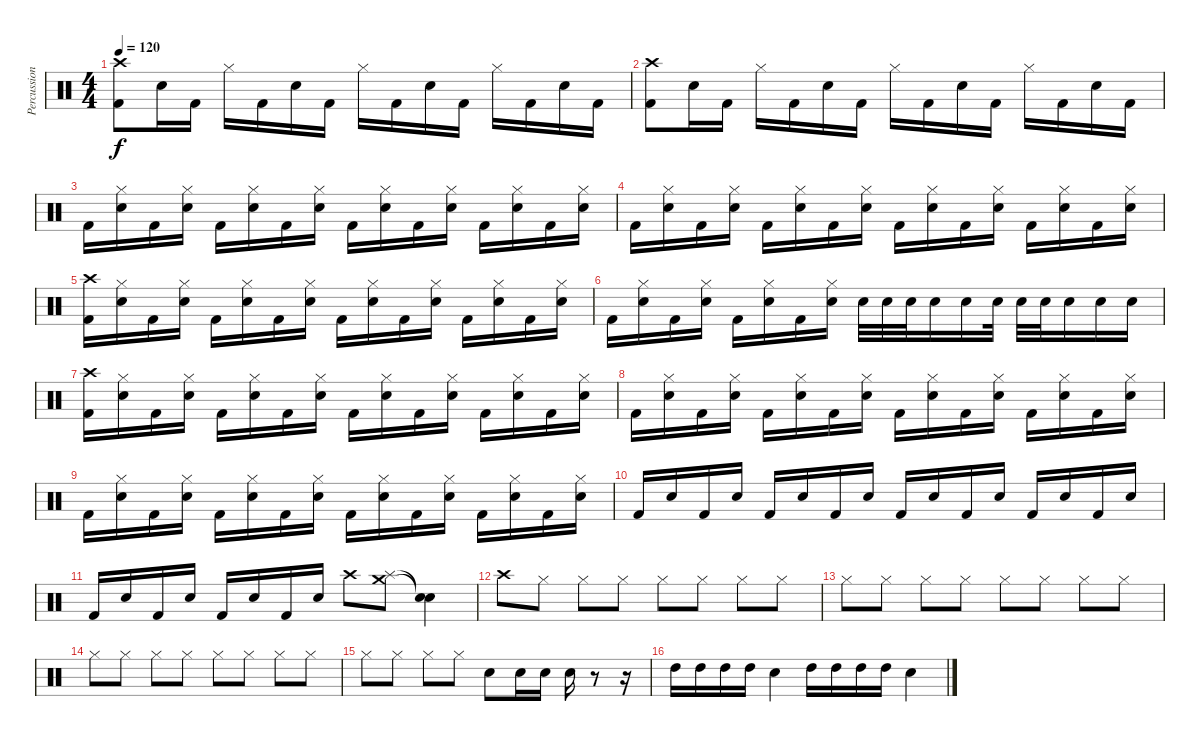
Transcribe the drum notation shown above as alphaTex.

\track ("Percussion" "Percussion") {instrument percussion}
\staff {score}
\articulation defaults
\ts (4 4)
\tempo 120
\clef neutral
\ks c
("Crash high (hit)" "Kick (hit) 2").8{dy f} "Snare (hit) 2".16 "Kick (hit) 2".16 "Hi-Hat (closed)".16 "Kick (hit) 2".16 "Snare (hit) 2".16 "Kick (hit) 2".16 "Hi-Hat (closed)".16 "Kick (hit) 2".16 "Snare (hit) 2".16 "Kick (hit) 2".16 "Hi-Hat (closed)".16 "Kick (hit) 2".16 "Snare (hit) 2".16 "Kick (hit) 2".16 |
("Crash high (hit)" "Kick (hit) 2").8 "Snare (hit) 2".16 "Kick (hit) 2".16 "Hi-Hat (closed)".16 "Kick (hit) 2".16 "Snare (hit) 2".16 "Kick (hit) 2".16 "Hi-Hat (closed)".16 "Kick (hit) 2".16 "Snare (hit) 2".16 "Kick (hit) 2".16 "Hi-Hat (closed)".16 "Kick (hit) 2".16 "Snare (hit) 2".16 "Kick (hit) 2".16 |
"Kick (hit) 2".16 ("Hi-Hat (closed)" "Snare (hit) 2").16 "Kick (hit) 2".16 ("Hi-Hat (closed)" "Snare (hit) 2").16 "Kick (hit) 2".16 ("Hi-Hat (closed)" "Snare (hit) 2").16 "Kick (hit) 2".16 ("Hi-Hat (closed)" "Snare (hit) 2").16 "Kick (hit) 2".16 ("Hi-Hat (closed)" "Snare (hit) 2").16 "Kick (hit) 2".16 ("Hi-Hat (closed)" "Snare (hit) 2").16 "Kick (hit) 2".16 ("Hi-Hat (closed)" "Snare (hit) 2").16 "Kick (hit) 2".16 ("Hi-Hat (closed)" "Snare (hit) 2").16 |
"Kick (hit) 2".16 ("Hi-Hat (closed)" "Snare (hit) 2").16 "Kick (hit) 2".16 ("Hi-Hat (closed)" "Snare (hit) 2").16 "Kick (hit) 2".16 ("Hi-Hat (closed)" "Snare (hit) 2").16 "Kick (hit) 2".16 ("Hi-Hat (closed)" "Snare (hit) 2").16 "Kick (hit) 2".16 ("Hi-Hat (closed)" "Snare (hit) 2").16 "Kick (hit) 2".16 ("Hi-Hat (closed)" "Snare (hit) 2").16 "Kick (hit) 2".16 ("Hi-Hat (closed)" "Snare (hit) 2").16 "Kick (hit) 2".16 ("Hi-Hat (closed)" "Snare (hit) 2").16 |
("Crash high (hit)" "Kick (hit) 2").16 ("Hi-Hat (closed)" "Snare (hit) 2").16 "Kick (hit) 2".16 ("Hi-Hat (closed)" "Snare (hit) 2").16 "Kick (hit) 2".16 ("Hi-Hat (closed)" "Snare (hit) 2").16 "Kick (hit) 2".16 ("Hi-Hat (closed)" "Snare (hit) 2").16 "Kick (hit) 2".16 ("Hi-Hat (closed)" "Snare (hit) 2").16 "Kick (hit) 2".16 ("Hi-Hat (closed)" "Snare (hit) 2").16 "Kick (hit) 2".16 ("Hi-Hat (closed)" "Snare (hit) 2").16 "Kick (hit) 2".16 ("Hi-Hat (closed)" "Snare (hit) 2").16 |
"Kick (hit) 2".16 ("Hi-Hat (closed)" "Snare (hit) 2").16 "Kick (hit) 2".16 ("Hi-Hat (closed)" "Snare (hit) 2").16 "Kick (hit) 2".16 ("Hi-Hat (closed)" "Snare (hit) 2").16 "Kick (hit) 2".16 ("Hi-Hat (closed)" "Snare (hit) 2").16 "Snare (hit) 2".32 "Snare (hit) 2".32 "Snare (hit) 2".32 "Snare (hit) 2".16 "Snare (hit) 2".16 "Snare (hit) 2".32 "Snare (hit) 2".32 "Snare (hit) 2".32 "Snare (hit) 2".16 "Snare (hit) 2".16 "Snare (hit) 2".16 |
("Crash high (hit)" "Kick (hit) 2").16 ("Hi-Hat (closed)" "Snare (hit) 2").16 "Kick (hit) 2".16 ("Hi-Hat (closed)" "Snare (hit) 2").16 "Kick (hit) 2".16 ("Hi-Hat (closed)" "Snare (hit) 2").16 "Kick (hit) 2".16 ("Hi-Hat (closed)" "Snare (hit) 2").16 "Kick (hit) 2".16 ("Hi-Hat (closed)" "Snare (hit) 2").16 "Kick (hit) 2".16 ("Hi-Hat (closed)" "Snare (hit) 2").16 "Kick (hit) 2".16 ("Hi-Hat (closed)" "Snare (hit) 2").16 "Kick (hit) 2".16 ("Hi-Hat (closed)" "Snare (hit) 2").16 |
"Kick (hit) 2".16 ("Hi-Hat (closed)" "Snare (hit) 2").16 "Kick (hit) 2".16 ("Hi-Hat (closed)" "Snare (hit) 2").16 "Kick (hit) 2".16 ("Hi-Hat (closed)" "Snare (hit) 2").16 "Kick (hit) 2".16 ("Hi-Hat (closed)" "Snare (hit) 2").16 "Kick (hit) 2".16 ("Hi-Hat (closed)" "Snare (hit) 2").16 "Kick (hit) 2".16 ("Hi-Hat (closed)" "Snare (hit) 2").16 "Kick (hit) 2".16 ("Hi-Hat (closed)" "Snare (hit) 2").16 "Kick (hit) 2".16 ("Hi-Hat (closed)" "Snare (hit) 2").16 |
"Kick (hit) 2".16 ("Hi-Hat (closed)" "Snare (hit) 2").16 "Kick (hit) 2".16 ("Hi-Hat (closed)" "Snare (hit) 2").16 "Kick (hit) 2".16 ("Hi-Hat (closed)" "Snare (hit) 2").16 "Kick (hit) 2".16 ("Hi-Hat (closed)" "Snare (hit) 2").16 "Kick (hit) 2".16 ("Hi-Hat (closed)" "Snare (hit) 2").16 "Kick (hit) 2".16 ("Hi-Hat (closed)" "Snare (hit) 2").16 "Kick (hit) 2".16 ("Hi-Hat (closed)" "Snare (hit) 2").16 "Kick (hit) 2".16 ("Hi-Hat (closed)" "Snare (hit) 2").16 |
"Kick (hit) 2".16 "Snare (hit) 2".16 "Kick (hit) 2".16 "Snare (hit) 2".16 "Kick (hit) 2".16 "Snare (hit) 2".16 "Kick (hit) 2".16 "Snare (hit) 2".16 "Kick (hit) 2".16 "Snare (hit) 2".16 "Kick (hit) 2".16 "Snare (hit) 2".16 "Kick (hit) 2".16 "Snare (hit) 2".16 "Kick (hit) 2".16 "Snare (hit) 2".16 |
"Kick (hit) 2".16 "Snare (hit) 2".16 "Kick (hit) 2".16 "Snare (hit) 2".16 "Kick (hit) 2".16 "Snare (hit) 2".16 "Kick (hit) 2".16 "Snare (hit) 2".16 "Crash high (hit)".8 ("Splash (hit)" "Crash medium (hit)").8 ("Snare (hit)"{t} "Snare (hit)"{t}).4 |
"Crash high (hit)".8 "Hi-Hat (closed)".8 "Hi-Hat (closed)".8 "Hi-Hat (closed)".8 "Hi-Hat (closed)".8 "Hi-Hat (closed)".8 "Hi-Hat (closed)".8 "Hi-Hat (closed)".8 |
"Hi-Hat (closed)".8 "Hi-Hat (closed)".8 "Hi-Hat (closed)".8 "Hi-Hat (closed)".8 "Hi-Hat (closed)".8 "Hi-Hat (closed)".8 "Hi-Hat (closed)".8 "Hi-Hat (closed)".8 |
"Hi-Hat (closed)".8 "Hi-Hat (closed)".8 "Hi-Hat (closed)".8 "Hi-Hat (closed)".8 "Hi-Hat (closed)".8 "Hi-Hat (closed)".8 "Hi-Hat (closed)".8 "Hi-Hat (closed)".8 |
"Hi-Hat (closed)".8 "Hi-Hat (closed)".8 "Hi-Hat (closed)".8 "Hi-Hat (closed)".8 "Snare (hit) 2".8 "Snare (hit) 2".16 "Snare (hit) 2".16 "Snare (hit) 2".16 r.8 r.16 |
"High Tom (hit)".16 "High Tom (hit)".16 "High Tom (hit)".16 "High Tom (hit)".16 "Snare (hit) 2".4 "High Tom (hit)".16 "High Tom (hit)".16 "High Tom (hit)".16 "High Tom (hit)".16 "Snare (hit) 2".4
